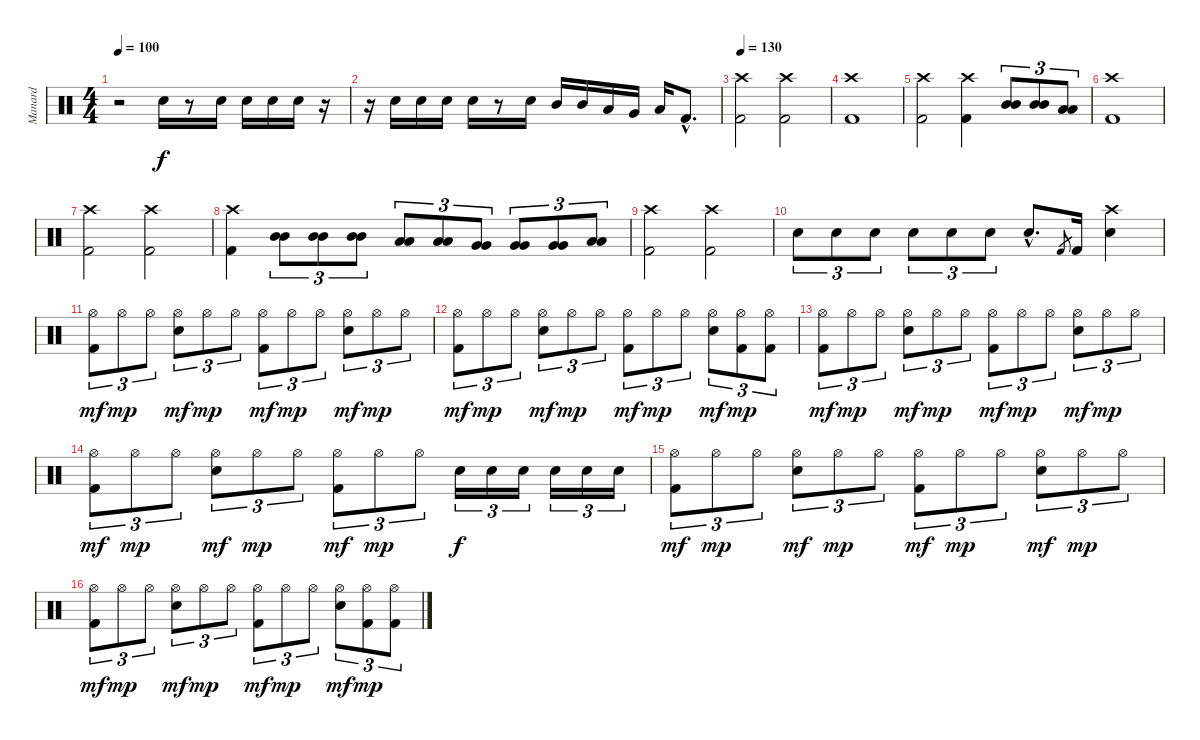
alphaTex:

\track ("Manard" "Manard") {instrument percussion}
\staff {score}
\articulation defaults
\ts (4 4)
\tempo 100
\clef neutral
\ks c
r.2{dy f} "Electric Snare (hit)".16 r.8 "Electric Snare (hit)".16 "Electric Snare (hit)".16 "Electric Snare (hit)".16 "Electric Snare (hit)".16 r.16 |
r.16 "Electric Snare (hit)".16 "Electric Snare (hit)".16 "Electric Snare (hit)".16 "Electric Snare (hit)".16 r.8 "Electric Snare (hit)".16 "Mid Tom (hit)".16 "Mid Tom (hit)".16 "Low Tom (hit)".16 "Very Low Tom (hit)".16 "Low Floor Tom (hit)".16 "Kick (hit) 2"{hac}.8{d} |
\tempo 130
("Crash high (hit)" "Kick (hit) 2").2 ("Crash high (hit)" "Kick (hit) 2").2 |
("Crash high (hit)" "Kick (hit) 2").1 |
("Crash high (hit)" "Kick (hit) 2").2 ("Crash high (hit)" "Kick (hit) 2").4 ("Mid Tom (hit)" "Mid Tom (hit)").8{tu (3 2)} ("Mid Tom (hit)" "Mid Tom (hit)").8{tu (3 2)} ("Low Tom (hit)" "Low Tom (hit)").8{tu (3 2)} |
("Crash high (hit)" "Kick (hit) 2").1 |
("Crash high (hit)" "Kick (hit) 2").2 ("Crash high (hit)" "Kick (hit) 2").2 |
("Crash high (hit)" "Kick (hit) 2").4 ("Mid Tom (hit)" "Mid Tom (hit)").8{tu (3 2)} ("Mid Tom (hit)" "Mid Tom (hit)").8{tu (3 2)} ("Mid Tom (hit)" "Mid Tom (hit)").8{tu (3 2)} ("Low Tom (hit)" "Low Tom (hit)").8{tu (3 2)} ("Low Tom (hit)" "Low Tom (hit)").8{tu (3 2)} ("Very Low Tom (hit)" "Very Low Tom (hit)").8{tu (3 2)} ("Very Low Tom (hit)" "Very Low Tom (hit)").8{tu (3 2)} ("Very Low Tom (hit)" "Very Low Tom (hit)").8{tu (3 2)} ("Low Floor Tom (hit)" "Low Floor Tom (hit)").8{tu (3 2)} |
("Crash high (hit)" "Kick (hit) 2").2 ("Crash high (hit)" "Kick (hit) 2").2 |
"Electric Snare (hit)".8{tu (3 2)} "Electric Snare (hit)".8{tu (3 2)} "Electric Snare (hit)".8{tu (3 2)} "Electric Snare (hit)".8{tu (3 2)} "Electric Snare (hit)".8{tu (3 2)} "Electric Snare (hit)".8{tu (3 2)} "Electric Snare (hit)"{hac}.8{d} "Kick (hit) 2".8{gr} "Kick (hit) 2".16 ("Crash high (hit)" "Electric Snare (hit)").4 |
("Hi-Hat (open)" "Kick (hit) 2").8{tu (3 2) dy mf} "Hi-Hat (open)".8{tu (3 2) dy mp} "Hi-Hat (open)".8{tu (3 2)} ("Hi-Hat (open)" "Electric Snare (hit)").8{tu (3 2) dy mf} "Hi-Hat (open)".8{tu (3 2) dy mp} "Hi-Hat (open)".8{tu (3 2)} ("Hi-Hat (open)" "Kick (hit) 2").8{tu (3 2) dy mf} "Hi-Hat (open)".8{tu (3 2) dy mp} "Hi-Hat (open)".8{tu (3 2)} ("Hi-Hat (open)" "Electric Snare (hit)").8{tu (3 2) dy mf} "Hi-Hat (open)".8{tu (3 2) dy mp} "Hi-Hat (open)".8{tu (3 2)} |
("Hi-Hat (open)" "Kick (hit) 2").8{tu (3 2) dy mf} "Hi-Hat (open)".8{tu (3 2) dy mp} "Hi-Hat (open)".8{tu (3 2)} ("Hi-Hat (open)" "Electric Snare (hit)").8{tu (3 2) dy mf} "Hi-Hat (open)".8{tu (3 2) dy mp} "Hi-Hat (open)".8{tu (3 2)} ("Hi-Hat (open)" "Kick (hit) 2").8{tu (3 2) dy mf} "Hi-Hat (open)".8{tu (3 2) dy mp} "Hi-Hat (open)".8{tu (3 2)} ("Hi-Hat (open)" "Electric Snare (hit)").8{tu (3 2) dy mf} ("Hi-Hat (open)" "Kick (hit) 2").8{tu (3 2) dy mp} ("Hi-Hat (open)" "Kick (hit) 2").8{tu (3 2)} |
("Hi-Hat (open)" "Kick (hit) 2").8{tu (3 2) dy mf} "Hi-Hat (open)".8{tu (3 2) dy mp} "Hi-Hat (open)".8{tu (3 2)} ("Hi-Hat (open)" "Electric Snare (hit)").8{tu (3 2) dy mf} "Hi-Hat (open)".8{tu (3 2) dy mp} "Hi-Hat (open)".8{tu (3 2)} ("Hi-Hat (open)" "Kick (hit) 2").8{tu (3 2) dy mf} "Hi-Hat (open)".8{tu (3 2) dy mp} "Hi-Hat (open)".8{tu (3 2)} ("Hi-Hat (open)" "Electric Snare (hit)").8{tu (3 2) dy mf} "Hi-Hat (open)".8{tu (3 2) dy mp} "Hi-Hat (open)".8{tu (3 2)} |
("Hi-Hat (open)" "Kick (hit) 2").8{tu (3 2) dy mf} "Hi-Hat (open)".8{tu (3 2) dy mp} "Hi-Hat (open)".8{tu (3 2)} ("Hi-Hat (open)" "Electric Snare (hit)").8{tu (3 2) dy mf} "Hi-Hat (open)".8{tu (3 2) dy mp} "Hi-Hat (open)".8{tu (3 2)} ("Hi-Hat (open)" "Kick (hit) 2").8{tu (3 2) dy mf} "Hi-Hat (open)".8{tu (3 2) dy mp} "Hi-Hat (open)".8{tu (3 2)} "Electric Snare (hit)".16{tu (3 2) dy f} "Electric Snare (hit)".16{tu (3 2)} "Electric Snare (hit)".16{tu (3 2)} "Electric Snare (hit)".16{tu (3 2)} "Electric Snare (hit)".16{tu (3 2)} "Electric Snare (hit)".16{tu (3 2)} |
("Hi-Hat (open)" "Kick (hit) 2").8{tu (3 2) dy mf} "Hi-Hat (open)".8{tu (3 2) dy mp} "Hi-Hat (open)".8{tu (3 2)} ("Hi-Hat (open)" "Electric Snare (hit)").8{tu (3 2) dy mf} "Hi-Hat (open)".8{tu (3 2) dy mp} "Hi-Hat (open)".8{tu (3 2)} ("Hi-Hat (open)" "Kick (hit) 2").8{tu (3 2) dy mf} "Hi-Hat (open)".8{tu (3 2) dy mp} "Hi-Hat (open)".8{tu (3 2)} ("Hi-Hat (open)" "Electric Snare (hit)").8{tu (3 2) dy mf} "Hi-Hat (open)".8{tu (3 2) dy mp} "Hi-Hat (open)".8{tu (3 2)} |
("Hi-Hat (open)" "Kick (hit) 2").8{tu (3 2) dy mf} "Hi-Hat (open)".8{tu (3 2) dy mp} "Hi-Hat (open)".8{tu (3 2)} ("Hi-Hat (open)" "Electric Snare (hit)").8{tu (3 2) dy mf} "Hi-Hat (open)".8{tu (3 2) dy mp} "Hi-Hat (open)".8{tu (3 2)} ("Hi-Hat (open)" "Kick (hit) 2").8{tu (3 2) dy mf} "Hi-Hat (open)".8{tu (3 2) dy mp} "Hi-Hat (open)".8{tu (3 2)} ("Hi-Hat (open)" "Electric Snare (hit)").8{tu (3 2) dy mf} ("Hi-Hat (open)" "Kick (hit) 2").8{tu (3 2) dy mp} ("Hi-Hat (open)" "Kick (hit) 2").8{tu (3 2)}
